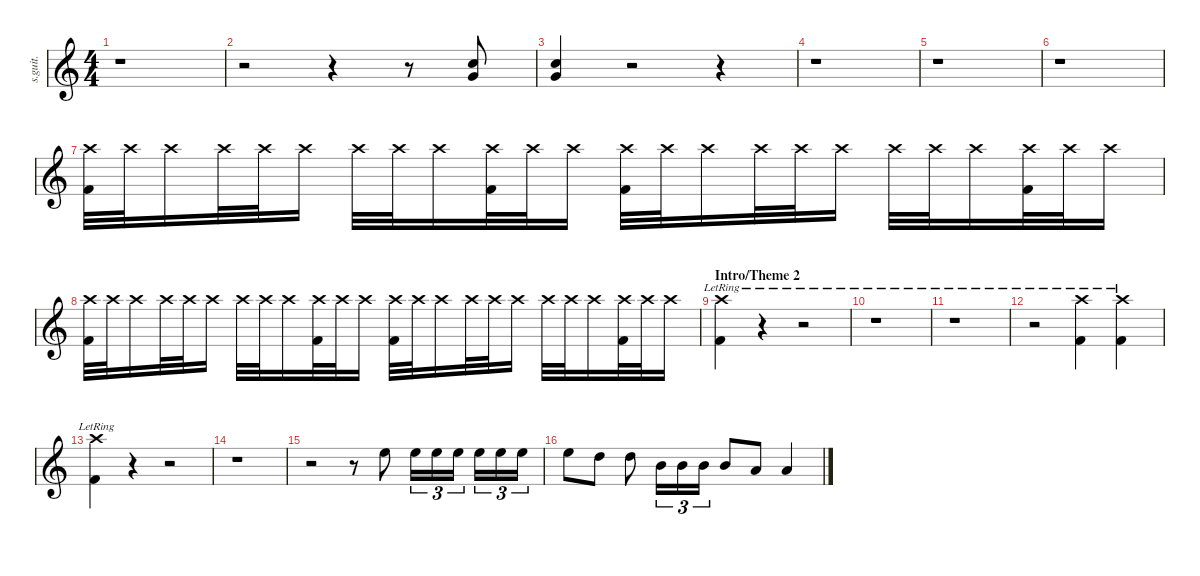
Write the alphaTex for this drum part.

\defaultSystemsLayout 4
\hideDynamics
\bracketExtendMode nobrackets
\track ("Lars Ulrich - Drumzzz" "s.guit.") {instrument percussion}
\staff {score}
\articulation defaults
\ts (4 4)
\tempo (112 hide)
\clef g2
\ks c
r.1{dy f} |
r.2 r.4 r.8 ("Very Low Tom (hit)" "Snare (hit) 2").8{lyrics (0 "") lyrics (1 "") lyrics (2 "") lyrics (3 "") lyrics (4 "")} |
("Very Low Tom (hit)" "Snare (hit) 2").4{lyrics (0 "") lyrics (1 "") lyrics (2 "") lyrics (3 "") lyrics (4 "")} r.2 r.4 |
r.1 |
r.1 |
r.1 |
("Crash high (hit)" "Kick (hit) 2").32{lyrics (0 "") lyrics (1 "") lyrics (2 "") lyrics (3 "") lyrics (4 "")} "Crash high (hit)".32{lyrics (0 "") lyrics (1 "") lyrics (2 "") lyrics (3 "") lyrics (4 "")} "Crash high (hit)".16{lyrics (0 "") lyrics (1 "") lyrics (2 "") lyrics (3 "") lyrics (4 "")} "Crash high (hit)".32{lyrics (0 "") lyrics (1 "") lyrics (2 "") lyrics (3 "") lyrics (4 "")} "Crash high (hit)".32{lyrics (0 "") lyrics (1 "") lyrics (2 "") lyrics (3 "") lyrics (4 "")} "Crash high (hit)".16{lyrics (0 "") lyrics (1 "") lyrics (2 "") lyrics (3 "") lyrics (4 "")} "Crash high (hit)".32{lyrics (0 "") lyrics (1 "") lyrics (2 "") lyrics (3 "") lyrics (4 "")} "Crash high (hit)".32{lyrics (0 "") lyrics (1 "") lyrics (2 "") lyrics (3 "") lyrics (4 "")} "Crash high (hit)".16{lyrics (0 "") lyrics (1 "") lyrics (2 "") lyrics (3 "") lyrics (4 "")} ("Crash high (hit)" "Kick (hit) 2").32{lyrics (0 "") lyrics (1 "") lyrics (2 "") lyrics (3 "") lyrics (4 "")} "Crash high (hit)".32{lyrics (0 "") lyrics (1 "") lyrics (2 "") lyrics (3 "") lyrics (4 "")} "Crash high (hit)".16{lyrics (0 "") lyrics (1 "") lyrics (2 "") lyrics (3 "") lyrics (4 "")} ("Crash high (hit)" "Kick (hit) 2").32{lyrics (0 "") lyrics (1 "") lyrics (2 "") lyrics (3 "") lyrics (4 "")} "Crash high (hit)".32{lyrics (0 "") lyrics (1 "") lyrics (2 "") lyrics (3 "") lyrics (4 "")} "Crash high (hit)".16{lyrics (0 "") lyrics (1 "") lyrics (2 "") lyrics (3 "") lyrics (4 "")} "Crash high (hit)".32{lyrics (0 "") lyrics (1 "") lyrics (2 "") lyrics (3 "") lyrics (4 "")} "Crash high (hit)".32{lyrics (0 "") lyrics (1 "") lyrics (2 "") lyrics (3 "") lyrics (4 "")} "Crash high (hit)".16{lyrics (0 "") lyrics (1 "") lyrics (2 "") lyrics (3 "") lyrics (4 "")} "Crash high (hit)".32{lyrics (0 "") lyrics (1 "") lyrics (2 "") lyrics (3 "") lyrics (4 "")} "Crash high (hit)".32{lyrics (0 "") lyrics (1 "") lyrics (2 "") lyrics (3 "") lyrics (4 "")} "Crash high (hit)".16{lyrics (0 "") lyrics (1 "") lyrics (2 "") lyrics (3 "") lyrics (4 "")} ("Crash high (hit)" "Kick (hit) 2").32{lyrics (0 "") lyrics (1 "") lyrics (2 "") lyrics (3 "") lyrics (4 "")} "Crash high (hit)".32{lyrics (0 "") lyrics (1 "") lyrics (2 "") lyrics (3 "") lyrics (4 "")} "Crash high (hit)".16{lyrics (0 "") lyrics (1 "") lyrics (2 "") lyrics (3 "") lyrics (4 "")} |
("Crash high (hit)" "Kick (hit) 2").32{lyrics (0 "") lyrics (1 "") lyrics (2 "") lyrics (3 "") lyrics (4 "")} "Crash high (hit)".32{lyrics (0 "") lyrics (1 "") lyrics (2 "") lyrics (3 "") lyrics (4 "")} "Crash high (hit)".16{lyrics (0 "") lyrics (1 "") lyrics (2 "") lyrics (3 "") lyrics (4 "")} "Crash high (hit)".32{lyrics (0 "") lyrics (1 "") lyrics (2 "") lyrics (3 "") lyrics (4 "")} "Crash high (hit)".32{lyrics (0 "") lyrics (1 "") lyrics (2 "") lyrics (3 "") lyrics (4 "")} "Crash high (hit)".16{lyrics (0 "") lyrics (1 "") lyrics (2 "") lyrics (3 "") lyrics (4 "")} "Crash high (hit)".32{lyrics (0 "") lyrics (1 "") lyrics (2 "") lyrics (3 "") lyrics (4 "")} "Crash high (hit)".32{lyrics (0 "") lyrics (1 "") lyrics (2 "") lyrics (3 "") lyrics (4 "")} "Crash high (hit)".16{lyrics (0 "") lyrics (1 "") lyrics (2 "") lyrics (3 "") lyrics (4 "")} ("Crash high (hit)" "Kick (hit) 2").32{lyrics (0 "") lyrics (1 "") lyrics (2 "") lyrics (3 "") lyrics (4 "")} "Crash high (hit)".32{lyrics (0 "") lyrics (1 "") lyrics (2 "") lyrics (3 "") lyrics (4 "")} "Crash high (hit)".16{lyrics (0 "") lyrics (1 "") lyrics (2 "") lyrics (3 "") lyrics (4 "")} ("Crash high (hit)" "Kick (hit) 2").32{lyrics (0 "") lyrics (1 "") lyrics (2 "") lyrics (3 "") lyrics (4 "")} "Crash high (hit)".32{lyrics (0 "") lyrics (1 "") lyrics (2 "") lyrics (3 "") lyrics (4 "")} "Crash high (hit)".16{lyrics (0 "") lyrics (1 "") lyrics (2 "") lyrics (3 "") lyrics (4 "")} "Crash high (hit)".32{lyrics (0 "") lyrics (1 "") lyrics (2 "") lyrics (3 "") lyrics (4 "")} "Crash high (hit)".32{lyrics (0 "") lyrics (1 "") lyrics (2 "") lyrics (3 "") lyrics (4 "")} "Crash high (hit)".16{lyrics (0 "") lyrics (1 "") lyrics (2 "") lyrics (3 "") lyrics (4 "")} "Crash high (hit)".32{lyrics (0 "") lyrics (1 "") lyrics (2 "") lyrics (3 "") lyrics (4 "")} "Crash high (hit)".32{lyrics (0 "") lyrics (1 "") lyrics (2 "") lyrics (3 "") lyrics (4 "")} "Crash high (hit)".16{lyrics (0 "") lyrics (1 "") lyrics (2 "") lyrics (3 "") lyrics (4 "")} ("Crash high (hit)" "Kick (hit) 2").32{lyrics (0 "") lyrics (1 "") lyrics (2 "") lyrics (3 "") lyrics (4 "")} "Crash high (hit)".32{lyrics (0 "") lyrics (1 "") lyrics (2 "") lyrics (3 "") lyrics (4 "")} "Crash high (hit)".16{lyrics (0 "") lyrics (1 "") lyrics (2 "") lyrics (3 "") lyrics (4 "")} |
\section ("" "Intro/Theme 2")
("Crash high (hit)"{lr} "Kick (hit) 2"{lr}).4{lyrics (0 "") lyrics (1 "") lyrics (2 "") lyrics (3 "") lyrics (4 "")} r.4 r.2 |
r.1 |
r.1 |
\tempo (113 hide)
r.2 ("Crash high (hit)"{lr} "Kick (hit) 2"{lr}).4{lyrics (0 "") lyrics (1 "") lyrics (2 "") lyrics (3 "") lyrics (4 "")} ("Crash high (hit)"{lr} "Kick (hit) 2"{lr}).4{lyrics (0 "") lyrics (1 "") lyrics (2 "") lyrics (3 "") lyrics (4 "")} |
("Crash high (hit)"{lr} "Kick (hit) 2"{lr}).4{lyrics (0 "") lyrics (1 "") lyrics (2 "") lyrics (3 "") lyrics (4 "")} r.4 r.2 |
r.1 |
r.2 r.8 "High Floor Tom (hit)".8{lyrics (0 "") lyrics (1 "") lyrics (2 "") lyrics (3 "") lyrics (4 "")} "High Floor Tom (hit)".16{tu (3 2) lyrics (0 "") lyrics (1 "") lyrics (2 "") lyrics (3 "") lyrics (4 "")} "High Floor Tom (hit)".16{tu (3 2) lyrics (0 "") lyrics (1 "") lyrics (2 "") lyrics (3 "") lyrics (4 "")} "High Floor Tom (hit)".16{tu (3 2) lyrics (0 "") lyrics (1 "") lyrics (2 "") lyrics (3 "") lyrics (4 "")} "High Floor Tom (hit)".16{tu (3 2) lyrics (0 "") lyrics (1 "") lyrics (2 "") lyrics (3 "") lyrics (4 "")} "High Floor Tom (hit)".16{tu (3 2) lyrics (0 "") lyrics (1 "") lyrics (2 "") lyrics (3 "") lyrics (4 "")} "High Floor Tom (hit)".16{tu (3 2) lyrics (0 "") lyrics (1 "") lyrics (2 "") lyrics (3 "") lyrics (4 "")} |
"High Floor Tom (hit)".8{lyrics (0 "") lyrics (1 "") lyrics (2 "") lyrics (3 "") lyrics (4 "")} "High Tom (hit)".8{lyrics (0 "") lyrics (1 "") lyrics (2 "") lyrics (3 "") lyrics (4 "")} "High Tom (hit)".8{lyrics (0 "") lyrics (1 "") lyrics (2 "") lyrics (3 "") lyrics (4 "")} "Mid Tom (hit)".16{tu (3 2) lyrics (0 "") lyrics (1 "") lyrics (2 "") lyrics (3 "") lyrics (4 "")} "Mid Tom (hit)".16{tu (3 2) lyrics (0 "") lyrics (1 "") lyrics (2 "") lyrics (3 "") lyrics (4 "")} "Mid Tom (hit)".16{tu (3 2) lyrics (0 "") lyrics (1 "") lyrics (2 "") lyrics (3 "") lyrics (4 "")} "Mid Tom (hit)".8{lyrics (0 "") lyrics (1 "") lyrics (2 "") lyrics (3 "") lyrics (4 "")} "Low Tom (hit)".8{lyrics (0 "") lyrics (1 "") lyrics (2 "") lyrics (3 "") lyrics (4 "")} "Low Tom (hit)".4{lyrics (0 "") lyrics (1 "") lyrics (2 "") lyrics (3 "") lyrics (4 "")}
